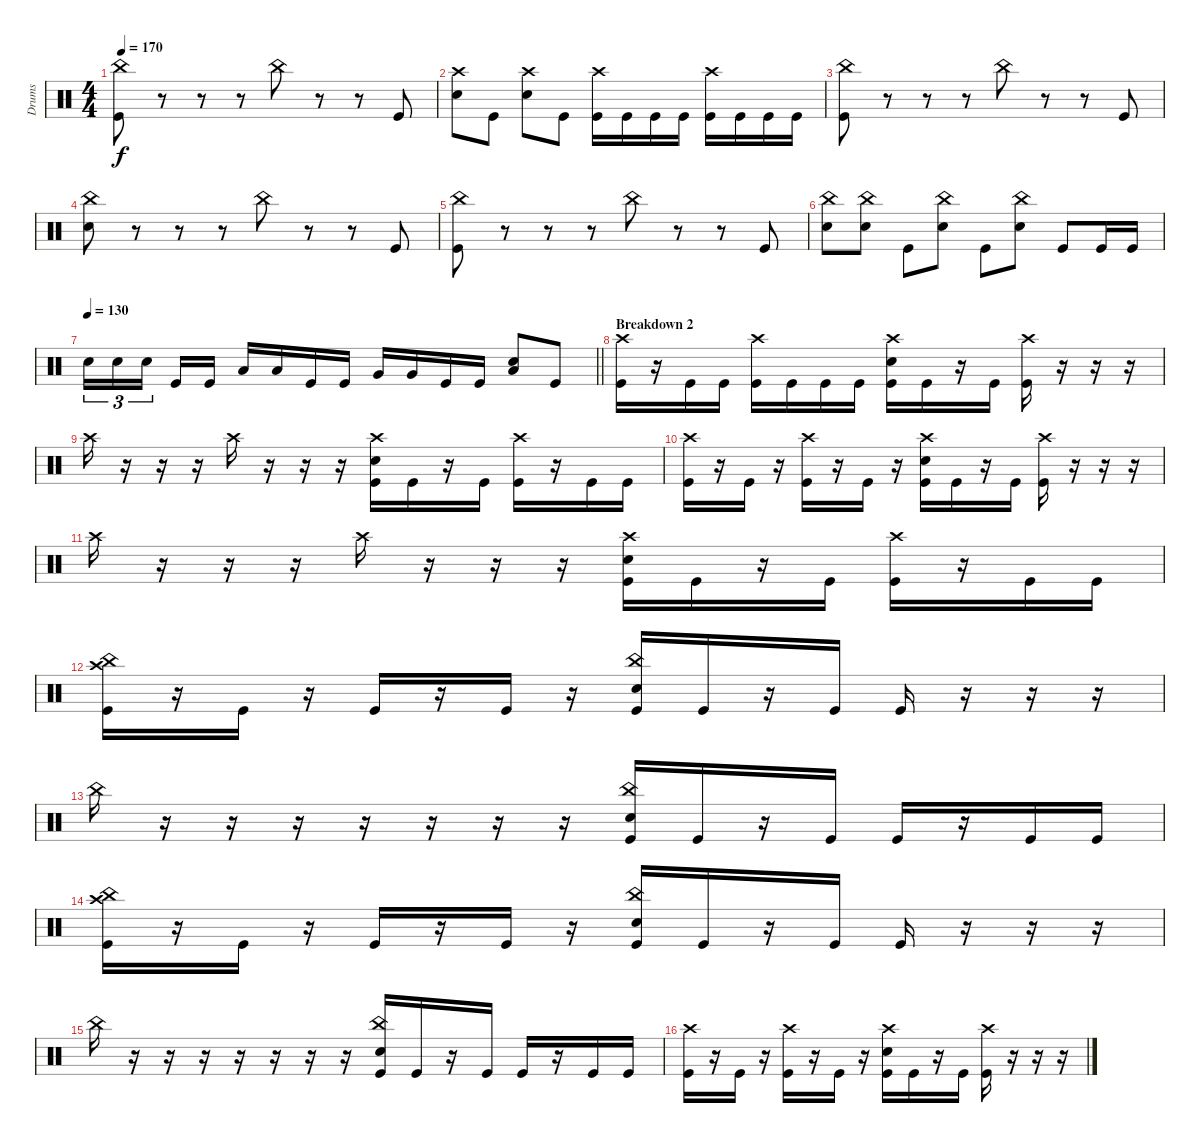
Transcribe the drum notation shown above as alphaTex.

\track ("Drums" "Drums") {instrument percussion}
\staff {score}
\articulation defaults
\ts (4 4)
\tempo 170
\clef neutral
\ks c
("Kick (hit)" "China (hit)").8{dy f} r.8 r.8 r.8 "China (hit)".8 r.8 r.8 "Kick (hit)".8 |
("Snare (hit) 2" "Crash high (hit)").8 "Kick (hit)".8 ("Snare (hit) 2" "Crash high (hit)").8 "Kick (hit)".8 ("Kick (hit)" "Crash high (hit)").16 "Kick (hit)".16 "Kick (hit)".16 "Kick (hit)".16 ("Kick (hit)" "Crash high (hit)").16 "Kick (hit)".16 "Kick (hit)".16 "Kick (hit)".16 |
("Kick (hit)" "China (hit)").8 r.8 r.8 r.8 "China (hit)".8 r.8 r.8 "Kick (hit)".8 |
("Snare (hit) 2" "China (hit)").8 r.8 r.8 r.8 "China (hit)".8 r.8 r.8 "Kick (hit)".8 |
("Kick (hit)" "China (hit)").8 r.8 r.8 r.8 "China (hit)".8 r.8 r.8 "Kick (hit)".8 |
("Snare (hit) 2" "China (hit)").8 ("Snare (hit) 2" "China (hit)").8 "Kick (hit)".8 ("Snare (hit) 2" "China (hit)").8 "Kick (hit)".8 ("Snare (hit) 2" "China (hit)").8 "Kick (hit)".8 "Kick (hit)".16 "Kick (hit)".16 |
\tempo 130
\barLineRight lightlight "Snare (hit) 2".16{tu (3 2)} "Snare (hit) 2".16{tu (3 2)} "Snare (hit) 2".16{tu (3 2) beam splitsecondary} "Kick (hit)".16 "Kick (hit)".16 "Low Tom (hit)".16 "Low Tom (hit)".16 "Kick (hit)".16 "Kick (hit)".16 "Very Low Tom (hit)".16 "Very Low Tom (hit)".16 "Kick (hit)".16 "Kick (hit)".16
("Snare (hit) 2" "Low Floor Tom (hit)").8 "Kick (hit)".8 |
\section ("" "Breakdown 2")
("Kick (hit)" "Crash high (hit)").16 r.16 "Kick (hit)".16 "Kick (hit)".16 ("Kick (hit)" "Crash high (hit)").16 "Kick (hit)".16 "Kick (hit)".16 "Kick (hit)".16 ("Kick (hit)" "Snare (hit) 2" "Crash high (hit)").16 "Kick (hit)".16 r.16 "Kick (hit)".16 ("Kick (hit)" "Crash high (hit)").16 r.16 r.16 r.16 |
"Crash high (hit)".16 r.16 r.16 r.16 "Crash high (hit)".16 r.16 r.16 r.16 ("Kick (hit)" "Snare (hit) 2" "Crash high (hit)").16 "Kick (hit)".16 r.16 "Kick (hit)".16 ("Kick (hit)" "Crash high (hit)").16 r.16 "Kick (hit)".16 "Kick (hit)".16 |
("Kick (hit)" "Crash high (hit)").16 r.16 "Kick (hit)".16 r.16 ("Kick (hit)" "Crash high (hit)").16 r.16 "Kick (hit)".16 r.16 ("Kick (hit)" "Snare (hit) 2" "Crash high (hit)").16 "Kick (hit)".16 r.16 "Kick (hit)".16 ("Kick (hit)" "Crash high (hit)").16 r.16 r.16 r.16 |
"Crash high (hit)".16 r.16 r.16 r.16 "Crash high (hit)".16 r.16 r.16 r.16 ("Kick (hit)" "Snare (hit) 2" "Crash high (hit)").16 "Kick (hit)".16 r.16 "Kick (hit)".16 ("Kick (hit)" "Crash high (hit)").16 r.16 "Kick (hit)".16 "Kick (hit)".16 |
("Kick (hit)" "Crash high (hit)" "China (hit)").16 r.16 "Kick (hit)".16 r.16 "Kick (hit)".16 r.16 "Kick (hit)".16 r.16 ("Kick (hit)" "Snare (hit) 2" "China (hit)").16 "Kick (hit)".16 r.16 "Kick (hit)".16 "Kick (hit)".16 r.16 r.16 r.16 |
"China (hit)".16 r.16 r.16 r.16 r.16 r.16 r.16 r.16 ("Kick (hit)" "Snare (hit) 2" "China (hit)").16 "Kick (hit)".16 r.16 "Kick (hit)".16 "Kick (hit)".16 r.16 "Kick (hit)".16 "Kick (hit)".16 |
("Kick (hit)" "Crash high (hit)" "China (hit)").16 r.16 "Kick (hit)".16 r.16 "Kick (hit)".16 r.16 "Kick (hit)".16 r.16 ("Kick (hit)" "Snare (hit) 2" "China (hit)").16 "Kick (hit)".16 r.16 "Kick (hit)".16 "Kick (hit)".16 r.16 r.16 r.16 |
"China (hit)".16 r.16 r.16 r.16 r.16 r.16 r.16 r.16 ("Kick (hit)" "Snare (hit) 2" "China (hit)").16 "Kick (hit)".16 r.16 "Kick (hit)".16 "Kick (hit)".16 r.16 "Kick (hit)".16 "Kick (hit)".16 |
("Kick (hit)" "Crash high (hit)").16 r.16 "Kick (hit)".16 r.16 ("Kick (hit)" "Crash high (hit)").16 r.16 "Kick (hit)".16 r.16 ("Kick (hit)" "Snare (hit) 2" "Crash high (hit)").16 "Kick (hit)".16 r.16 "Kick (hit)".16 ("Kick (hit)" "Crash high (hit)").16 r.16 r.16 r.16
